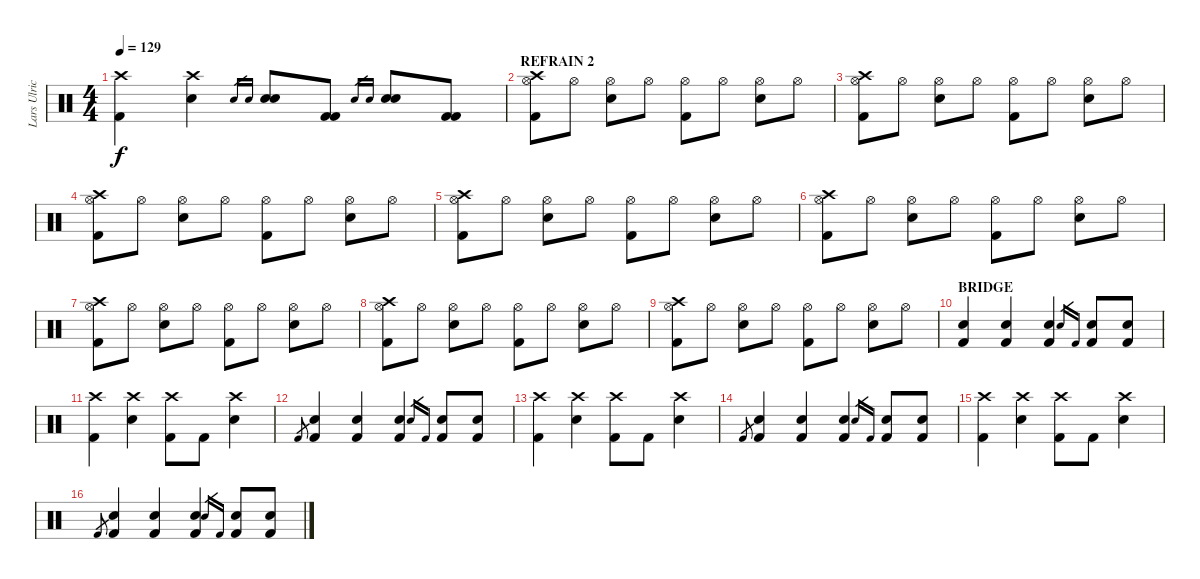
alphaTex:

\track ("Lars Ulrich [drums]" "Lars Ulric") {instrument percussion}
\staff {score}
\articulation defaults
\ts (4 4)
\tempo 129
\clef neutral
\ks c
("Kick (hit) 2" "Crash high (hit)").4{dy f} ("Snare (hit) 2" "Crash high (hit)").4 "Electric Snare (hit)".16{gr} "Snare (hit) 2".16{gr} ("Electric Snare (hit)" "Snare (hit) 2").8 ("Kick (hit) 2" "Kick (hit) 2").8 "Electric Snare (hit)".16{gr} "Snare (hit) 2".16{gr} ("Electric Snare (hit)" "Snare (hit) 2").8 ("Kick (hit) 2" "Kick (hit) 2").8 |
\section ("" "REFRAIN 2")
("Kick (hit) 2" "Crash high (hit)" "Hi-Hat (open)").8 "Hi-Hat (open)".8 ("Snare (hit) 2" "Hi-Hat (open)").8 "Hi-Hat (open)".8 ("Kick (hit) 2" "Hi-Hat (open)").8 "Hi-Hat (open)".8 ("Snare (hit) 2" "Hi-Hat (open)").8 "Hi-Hat (open)".8 |
("Kick (hit) 2" "Crash high (hit)" "Hi-Hat (open)").8 "Hi-Hat (open)".8 ("Snare (hit) 2" "Hi-Hat (open)").8 "Hi-Hat (open)".8 ("Kick (hit) 2" "Hi-Hat (open)").8 "Hi-Hat (open)".8 ("Snare (hit) 2" "Hi-Hat (open)").8 "Hi-Hat (open)".8 |
("Kick (hit) 2" "Crash high (hit)" "Hi-Hat (open)").8 "Hi-Hat (open)".8 ("Snare (hit) 2" "Hi-Hat (open)").8 "Hi-Hat (open)".8 ("Kick (hit) 2" "Hi-Hat (open)").8 "Hi-Hat (open)".8 ("Snare (hit) 2" "Hi-Hat (open)").8 "Hi-Hat (open)".8 |
("Kick (hit) 2" "Crash high (hit)" "Hi-Hat (open)").8 "Hi-Hat (open)".8 ("Snare (hit) 2" "Hi-Hat (open)").8 "Hi-Hat (open)".8 ("Kick (hit) 2" "Hi-Hat (open)").8 "Hi-Hat (open)".8 ("Snare (hit) 2" "Hi-Hat (open)").8 "Hi-Hat (open)".8 |
("Kick (hit) 2" "Crash high (hit)" "Hi-Hat (open)").8 "Hi-Hat (open)".8 ("Snare (hit) 2" "Hi-Hat (open)").8 "Hi-Hat (open)".8 ("Kick (hit) 2" "Hi-Hat (open)").8 "Hi-Hat (open)".8 ("Snare (hit) 2" "Hi-Hat (open)").8 "Hi-Hat (open)".8 |
("Kick (hit) 2" "Crash high (hit)" "Hi-Hat (open)").8 "Hi-Hat (open)".8 ("Snare (hit) 2" "Hi-Hat (open)").8 "Hi-Hat (open)".8 ("Kick (hit) 2" "Hi-Hat (open)").8 "Hi-Hat (open)".8 ("Snare (hit) 2" "Hi-Hat (open)").8 "Hi-Hat (open)".8 |
("Kick (hit) 2" "Crash high (hit)" "Hi-Hat (open)").8 "Hi-Hat (open)".8 ("Snare (hit) 2" "Hi-Hat (open)").8 "Hi-Hat (open)".8 ("Kick (hit) 2" "Hi-Hat (open)").8 "Hi-Hat (open)".8 ("Snare (hit) 2" "Hi-Hat (open)").8 "Hi-Hat (open)".8 |
("Kick (hit) 2" "Crash high (hit)" "Hi-Hat (open)").8 "Hi-Hat (open)".8 ("Snare (hit) 2" "Hi-Hat (open)").8 "Hi-Hat (open)".8 ("Kick (hit) 2" "Hi-Hat (open)").8 "Hi-Hat (open)".8 ("Snare (hit) 2" "Hi-Hat (open)").8 "Hi-Hat (open)".8 |
\section ("" "BRIDGE")
("Electric Snare (hit)" "Kick (hit) 2").4 ("Electric Snare (hit)" "Kick (hit) 2").4 ("Electric Snare (hit)" "Kick (hit) 2").4 "Electric Snare (hit)".16{gr} "Kick (hit) 2".16{gr} ("Electric Snare (hit)" "Kick (hit) 2").8 ("Electric Snare (hit)" "Kick (hit) 2").8 |
("Kick (hit) 2" "Crash high (hit)").4 ("Snare (hit) 2" "Crash high (hit)").4 ("Kick (hit) 2" "Crash high (hit)").8 "Kick (hit) 2".8 ("Snare (hit) 2" "Crash high (hit)").4 |
"Kick (hit) 2".8{gr} ("Electric Snare (hit)" "Kick (hit) 2").4 ("Electric Snare (hit)" "Kick (hit) 2").4 ("Electric Snare (hit)" "Kick (hit) 2").4 "Electric Snare (hit)".16{gr} "Kick (hit) 2".16{gr} ("Electric Snare (hit)" "Kick (hit) 2").8 ("Electric Snare (hit)" "Kick (hit) 2").8 |
("Kick (hit) 2" "Crash high (hit)").4 ("Snare (hit) 2" "Crash high (hit)").4 ("Kick (hit) 2" "Crash high (hit)").8 "Kick (hit) 2".8 ("Snare (hit) 2" "Crash high (hit)").4 |
"Kick (hit) 2".8{gr} ("Electric Snare (hit)" "Kick (hit) 2").4 ("Electric Snare (hit)" "Kick (hit) 2").4 ("Electric Snare (hit)" "Kick (hit) 2").4 "Electric Snare (hit)".16{gr} "Kick (hit) 2".16{gr} ("Electric Snare (hit)" "Kick (hit) 2").8 ("Electric Snare (hit)" "Kick (hit) 2").8 |
("Kick (hit) 2" "Crash high (hit)").4 ("Snare (hit) 2" "Crash high (hit)").4 ("Kick (hit) 2" "Crash high (hit)").8 "Kick (hit) 2".8 ("Snare (hit) 2" "Crash high (hit)").4 |
"Kick (hit) 2".8{gr} ("Electric Snare (hit)" "Kick (hit) 2").4 ("Electric Snare (hit)" "Kick (hit) 2").4 ("Electric Snare (hit)" "Kick (hit) 2").4 "Electric Snare (hit)".16{gr} "Kick (hit) 2".16{gr} ("Electric Snare (hit)" "Kick (hit) 2").8 ("Electric Snare (hit)" "Kick (hit) 2").8
